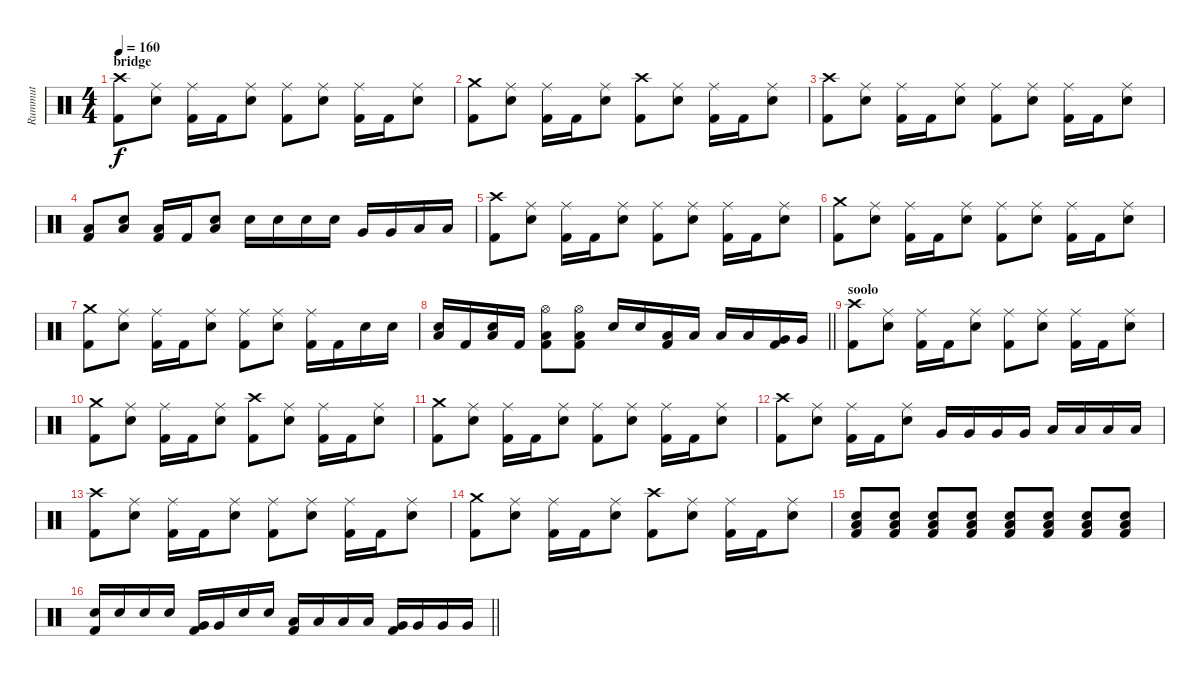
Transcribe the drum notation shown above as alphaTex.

\track ("Rummut" "Rummut") {instrument percussion}
\staff {score}
\articulation defaults
\ts (4 4)
\section ("" "bridge")
\tempo 160
\clef neutral
\ks c
("Crash high (hit)" "Kick (hit) 2").8{dy f} ("Ride (middle)" "Snare (hit) 2").8 ("Ride (middle)" "Kick (hit) 2").16 "Kick (hit) 2".16 ("Ride (middle)" "Snare (hit) 2").8 ("Ride (middle)" "Kick (hit) 2").8 ("Ride (middle)" "Snare (hit) 2").8 ("Ride (middle)" "Kick (hit) 2").16 "Kick (hit) 2".16 ("Ride (middle)" "Snare (hit) 2").8 |
("Crash medium (hit)" "Kick (hit) 2").8 ("Ride (middle)" "Snare (hit) 2").8 ("Ride (middle)" "Kick (hit) 2").16 "Kick (hit) 2".16 ("Ride (middle)" "Snare (hit) 2").8 ("Crash high (hit)" "Kick (hit) 2").8 ("Ride (middle)" "Snare (hit) 2").8 ("Ride (middle)" "Kick (hit) 2").16 "Kick (hit) 2".16 ("Ride (middle)" "Snare (hit) 2").8 |
("Crash high (hit)" "Kick (hit) 2").8 ("Ride (middle)" "Snare (hit) 2").8 ("Ride (middle)" "Kick (hit) 2").16 "Kick (hit) 2".16 ("Ride (middle)" "Snare (hit) 2").8 ("Ride (middle)" "Kick (hit) 2").8 ("Ride (middle)" "Snare (hit) 2").8 ("Ride (middle)" "Kick (hit) 2").16 "Kick (hit) 2".16 ("Ride (middle)" "Snare (hit) 2").8 |
("Low Floor Tom (hit)" "Kick (hit) 2").8 ("Low Floor Tom (hit)" "Snare (hit) 2").8 ("Low Floor Tom (hit)" "Kick (hit) 2").16 "Kick (hit) 2".16 ("Low Floor Tom (hit)" "Snare (hit) 2").8 "Snare (hit) 2".16 "Snare (hit) 2".16 "Snare (hit) 2".16 "Snare (hit) 2".16 "Very Low Tom (hit)".16 "Very Low Tom (hit)".16 "Low Floor Tom (hit)".16 "Low Floor Tom (hit)".16 |
("Crash high (hit)" "Kick (hit) 2").8 ("Ride (middle)" "Snare (hit) 2").8 ("Ride (middle)" "Kick (hit) 2").16 "Kick (hit) 2".16 ("Ride (middle)" "Snare (hit) 2").8 ("Ride (middle)" "Kick (hit) 2").8 ("Ride (middle)" "Snare (hit) 2").8 ("Ride (middle)" "Kick (hit) 2").16 "Kick (hit) 2".16 ("Ride (middle)" "Snare (hit) 2").8 |
("Crash medium (hit)" "Kick (hit) 2").8 ("Ride (middle)" "Snare (hit) 2").8 ("Ride (middle)" "Kick (hit) 2").16 "Kick (hit) 2".16 ("Ride (middle)" "Snare (hit) 2").8 ("Ride (middle)" "Kick (hit) 2").8 ("Ride (middle)" "Snare (hit) 2").8 ("Ride (middle)" "Kick (hit) 2").16 "Kick (hit) 2".16 ("Ride (middle)" "Snare (hit) 2").8 |
("Crash medium (hit)" "Kick (hit) 2").8 ("Ride (middle)" "Snare (hit) 2").8 ("Ride (middle)" "Kick (hit) 2").16 "Kick (hit) 2".16 ("Ride (middle)" "Snare (hit) 2").8 ("Ride (middle)" "Kick (hit) 2").8 ("Ride (middle)" "Snare (hit) 2").8 ("Ride (middle)" "Kick (hit) 2").16 "Kick (hit) 2".16 "Snare (hit) 2".16 "Snare (hit) 2".16 |
\barLineRight lightlight
("Snare (hit) 2" "Low Floor Tom (hit)").16 "Kick (hit) 2".16 ("Snare (hit) 2" "Low Floor Tom (hit)").16 "Kick (hit) 2".16 ("Hi-Hat (open)" "Low Floor Tom (hit)" "Kick (hit) 2").8 ("Hi-Hat (open)" "Low Floor Tom (hit)" "Kick (hit) 2").8 "Snare (hit) 2".16 "Snare (hit) 2".16 ("Low Tom (hit)" "Kick (hit) 2").16 "Low Tom (hit)".16 "Low Tom (hit)".16 "Low Tom (hit)".16 ("Very Low Tom (hit)" "Kick (hit) 2").16 "Very Low Tom (hit)".16 |
\section ("" "soolo")
("Crash high (hit)" "Kick (hit) 2").8 ("Ride (middle)" "Snare (hit) 2").8 ("Ride (middle)" "Kick (hit) 2").16 "Kick (hit) 2".16 ("Ride (middle)" "Snare (hit) 2").8 ("Ride (middle)" "Kick (hit) 2").8 ("Ride (middle)" "Snare (hit) 2").8 ("Ride (middle)" "Kick (hit) 2").16 "Kick (hit) 2".16 ("Ride (middle)" "Snare (hit) 2").8 |
("Crash medium (hit)" "Kick (hit) 2").8 ("Ride (middle)" "Snare (hit) 2").8 ("Ride (middle)" "Kick (hit) 2").16 "Kick (hit) 2".16 ("Ride (middle)" "Snare (hit) 2").8 ("Crash high (hit)" "Kick (hit) 2").8 ("Ride (middle)" "Snare (hit) 2").8 ("Ride (middle)" "Kick (hit) 2").16 "Kick (hit) 2".16 ("Ride (middle)" "Snare (hit) 2").8 |
("Crash medium (hit)" "Kick (hit) 2").8 ("Ride (middle)" "Snare (hit) 2").8 ("Ride (middle)" "Kick (hit) 2").16 "Kick (hit) 2".16 ("Ride (middle)" "Snare (hit) 2").8 ("Ride (middle)" "Kick (hit) 2").8 ("Ride (middle)" "Snare (hit) 2").8 ("Ride (middle)" "Kick (hit) 2").16 "Kick (hit) 2".16 ("Ride (middle)" "Snare (hit) 2").8 |
("Crash high (hit)" "Kick (hit) 2").8 ("Ride (middle)" "Snare (hit) 2").8 ("Ride (middle)" "Kick (hit) 2").16 "Kick (hit) 2".16 ("Ride (middle)" "Snare (hit) 2").8 "Very Low Tom (hit)".16 "Very Low Tom (hit)".16 "Very Low Tom (hit)".16 "Very Low Tom (hit)".16 "Low Floor Tom (hit)".16 "Low Floor Tom (hit)".16 "Low Floor Tom (hit)".16 "Low Floor Tom (hit)".16 |
("Crash high (hit)" "Kick (hit) 2").8 ("Ride (middle)" "Snare (hit) 2").8 ("Ride (middle)" "Kick (hit) 2").16 "Kick (hit) 2".16 ("Ride (middle)" "Snare (hit) 2").8 ("Ride (middle)" "Kick (hit) 2").8 ("Ride (middle)" "Snare (hit) 2").8 ("Ride (middle)" "Kick (hit) 2").16 "Kick (hit) 2".16 ("Ride (middle)" "Snare (hit) 2").8 |
("Crash medium (hit)" "Kick (hit) 2").8 ("Ride (middle)" "Snare (hit) 2").8 ("Ride (middle)" "Kick (hit) 2").16 "Kick (hit) 2".16 ("Ride (middle)" "Snare (hit) 2").8 ("Crash high (hit)" "Kick (hit) 2").8 ("Ride (middle)" "Snare (hit) 2").8 ("Ride (middle)" "Kick (hit) 2").16 "Kick (hit) 2".16 ("Ride (middle)" "Snare (hit) 2").8 |
("Low Floor Tom (hit)" "Snare (hit) 2" "Kick (hit) 2").8 ("Low Floor Tom (hit)" "Snare (hit) 2" "Kick (hit) 2").8 ("Low Floor Tom (hit)" "Snare (hit) 2" "Kick (hit) 2").8 ("Low Floor Tom (hit)" "Snare (hit) 2" "Kick (hit) 2").8 ("Low Floor Tom (hit)" "Snare (hit) 2" "Kick (hit) 2").8 ("Low Floor Tom (hit)" "Snare (hit) 2" "Kick (hit) 2").8 ("Low Floor Tom (hit)" "Snare (hit) 2" "Kick (hit) 2").8 ("Low Floor Tom (hit)" "Snare (hit) 2" "Kick (hit) 2").8 |
\barLineRight lightlight
("Snare (hit) 2" "Kick (hit) 2").16 "Snare (hit) 2".16 "Snare (hit) 2".16 "Snare (hit) 2".16 ("Very Low Tom (hit)" "Kick (hit) 2").16 "Very Low Tom (hit)".16 "Snare (hit) 2".16 "Snare (hit) 2".16 ("Low Tom (hit)" "Kick (hit) 2").16 "Low Tom (hit)".16 "Low Tom (hit)".16 "Low Tom (hit)".16 ("Very Low Tom (hit)" "Kick (hit) 2").16 "Very Low Tom (hit)".16 "Very Low Tom (hit)".16 "Very Low Tom (hit)".16
